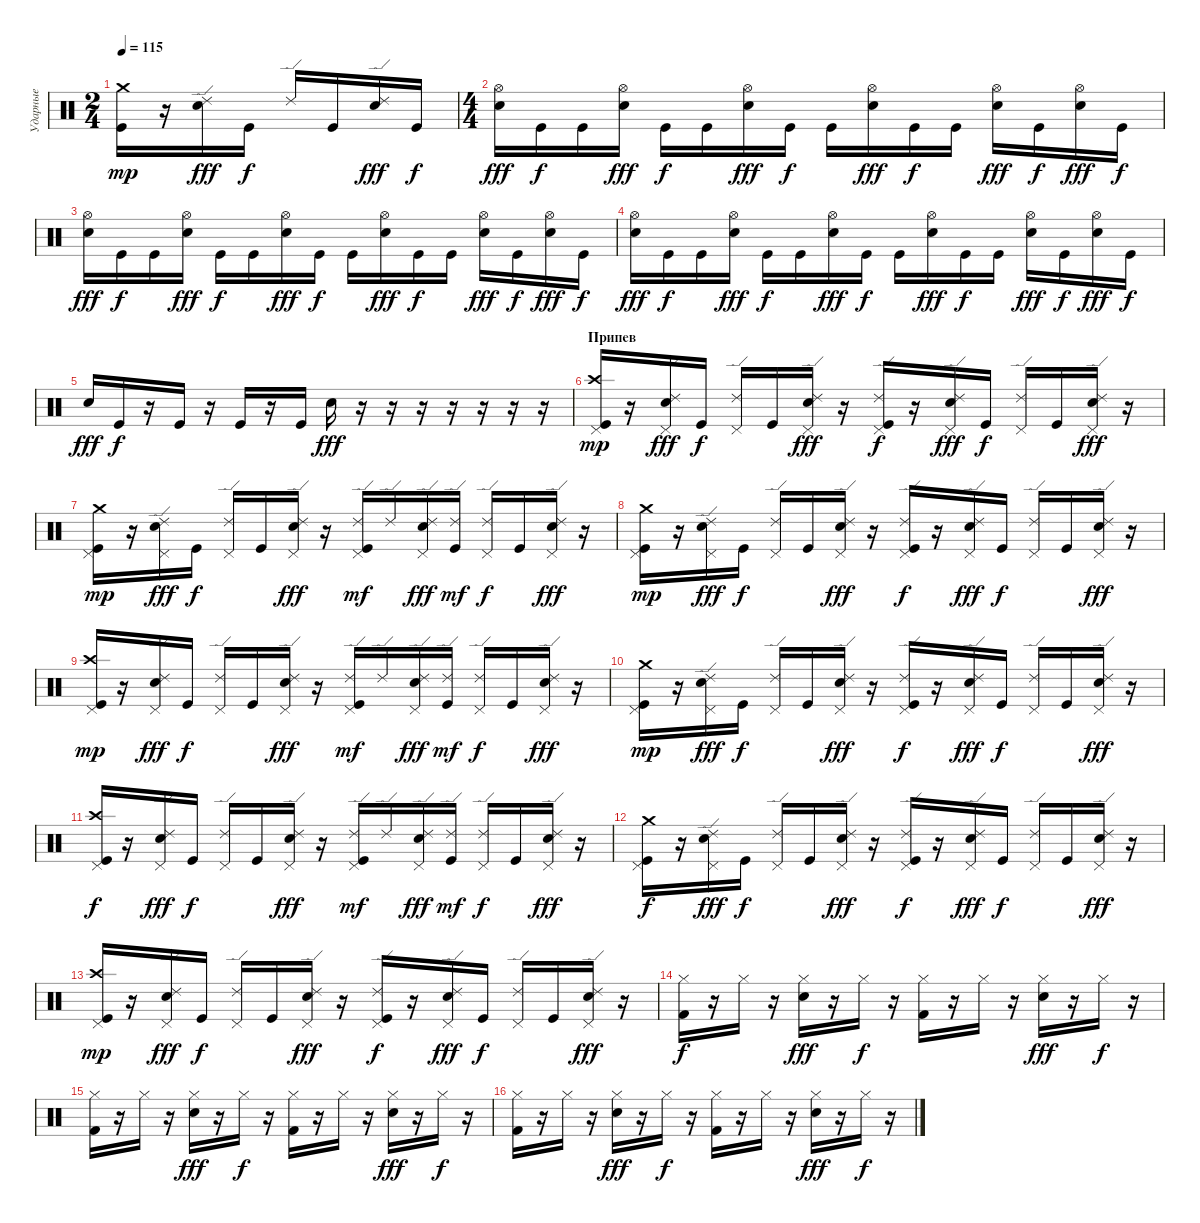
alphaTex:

\track ("Ударные" "Ударные") {instrument percussion}
\staff {score}
\articulation defaults
\ts (2 4)
\tempo 115
\clef neutral
\ks c
("Crash medium (hit)" "Kick (hit)").16{dy mp} r.16 ("Ride (edge) 2" "Electric Snare (hit)").16{dy fff} "Kick (hit)".16{dy f} "Ride (edge) 2".16 "Kick (hit)".16 ("Ride (edge) 2" "Electric Snare (hit)").16{dy fff} "Kick (hit)".16{dy f} |
\ts (4 4)
("Hi-Hat (open)" "Electric Snare (hit)").16{dy fff} "Kick (hit)".16{dy f} "Kick (hit)".16 ("Hi-Hat (open)" "Electric Snare (hit)").16{dy fff} "Kick (hit)".16{dy f} "Kick (hit)".16 ("Hi-Hat (open)" "Electric Snare (hit)").16{dy fff} "Kick (hit)".16{dy f} "Kick (hit)".16 ("Hi-Hat (open)" "Electric Snare (hit)").16{dy fff} "Kick (hit)".16{dy f} "Kick (hit)".16 ("Hi-Hat (open)" "Electric Snare (hit)").16{dy fff} "Kick (hit)".16{dy f} ("Hi-Hat (open)" "Electric Snare (hit)").16{dy fff} "Kick (hit)".16{dy f} |
("Hi-Hat (open)" "Electric Snare (hit)").16{dy fff} "Kick (hit)".16{dy f} "Kick (hit)".16 ("Hi-Hat (open)" "Electric Snare (hit)").16{dy fff} "Kick (hit)".16{dy f} "Kick (hit)".16 ("Hi-Hat (open)" "Electric Snare (hit)").16{dy fff} "Kick (hit)".16{dy f} "Kick (hit)".16 ("Hi-Hat (open)" "Electric Snare (hit)").16{dy fff} "Kick (hit)".16{dy f} "Kick (hit)".16 ("Hi-Hat (open)" "Electric Snare (hit)").16{dy fff} "Kick (hit)".16{dy f} ("Hi-Hat (open)" "Electric Snare (hit)").16{dy fff} "Kick (hit)".16{dy f} |
("Hi-Hat (open)" "Electric Snare (hit)").16{dy fff} "Kick (hit)".16{dy f} "Kick (hit)".16 ("Hi-Hat (open)" "Electric Snare (hit)").16{dy fff} "Kick (hit)".16{dy f} "Kick (hit)".16 ("Hi-Hat (open)" "Electric Snare (hit)").16{dy fff} "Kick (hit)".16{dy f} "Kick (hit)".16 ("Hi-Hat (open)" "Electric Snare (hit)").16{dy fff} "Kick (hit)".16{dy f} "Kick (hit)".16 ("Hi-Hat (open)" "Electric Snare (hit)").16{dy fff} "Kick (hit)".16{dy f} ("Hi-Hat (open)" "Electric Snare (hit)").16{dy fff} "Kick (hit)".16{dy f} |
"Electric Snare (hit)".16{dy fff} "Kick (hit)".16{dy f} r.16 "Kick (hit)".16 r.16 "Kick (hit)".16 r.16 "Kick (hit)".16 "Electric Snare (hit)".16{dy fff} r.16 r.16 r.16 r.16 r.16 r.16 r.16 |
\section ("" "Припев")
("Crash high (hit)" "Pedal Hi-Hat (hit)" "Kick (hit)").16{dy mp} r.16 ("Ride (edge) 2" "Pedal Hi-Hat (hit)" "Electric Snare (hit)").16{dy fff} "Kick (hit)".16{dy f} ("Ride (edge) 2" "Pedal Hi-Hat (hit)").16 "Kick (hit)".16 ("Ride (edge) 2" "Pedal Hi-Hat (hit)" "Electric Snare (hit)").16{dy fff} r.16 ("Ride (edge) 2" "Pedal Hi-Hat (hit)" "Kick (hit)").16{dy f} r.16 ("Ride (edge) 2" "Pedal Hi-Hat (hit)" "Electric Snare (hit)").16{dy fff} "Kick (hit)".16{dy f} ("Ride (edge) 2" "Pedal Hi-Hat (hit)").16 "Kick (hit)".16 ("Ride (edge) 2" "Pedal Hi-Hat (hit)" "Electric Snare (hit)").16{dy fff} r.16 |
("Crash medium (hit)" "Pedal Hi-Hat (hit)" "Kick (hit)").16{dy mp} r.16 ("Ride (edge) 2" "Pedal Hi-Hat (hit)" "Electric Snare (hit)").16{dy fff} "Kick (hit)".16{dy f} ("Ride (edge) 2" "Pedal Hi-Hat (hit)").16 "Kick (hit)".16 ("Ride (edge) 2" "Pedal Hi-Hat (hit)" "Electric Snare (hit)").16{dy fff} r.16 ("Ride (edge) 2" "Pedal Hi-Hat (hit)" "Kick (hit)").16{dy mf} "Ride (edge) 2".16 ("Ride (edge) 2" "Pedal Hi-Hat (hit)" "Electric Snare (hit)").16{dy fff} ("Ride (edge) 2" "Kick (hit)").16{dy mf} ("Ride (edge) 2" "Pedal Hi-Hat (hit)").16{dy f} "Kick (hit)".16 ("Ride (edge) 2" "Pedal Hi-Hat (hit)" "Electric Snare (hit)").16{dy fff} r.16 |
("Crash medium (hit)" "Pedal Hi-Hat (hit)" "Kick (hit)").16{dy mp} r.16 ("Ride (edge) 2" "Pedal Hi-Hat (hit)" "Electric Snare (hit)").16{dy fff} "Kick (hit)".16{dy f} ("Ride (edge) 2" "Pedal Hi-Hat (hit)").16 "Kick (hit)".16 ("Ride (edge) 2" "Pedal Hi-Hat (hit)" "Electric Snare (hit)").16{dy fff} r.16 ("Ride (edge) 2" "Pedal Hi-Hat (hit)" "Kick (hit)").16{dy f} r.16 ("Ride (edge) 2" "Pedal Hi-Hat (hit)" "Electric Snare (hit)").16{dy fff} "Kick (hit)".16{dy f} ("Ride (edge) 2" "Pedal Hi-Hat (hit)").16 "Kick (hit)".16 ("Ride (edge) 2" "Pedal Hi-Hat (hit)" "Electric Snare (hit)").16{dy fff} r.16 |
("Crash high (hit)" "Pedal Hi-Hat (hit)" "Kick (hit)").16{dy mp} r.16 ("Ride (edge) 2" "Pedal Hi-Hat (hit)" "Electric Snare (hit)").16{dy fff} "Kick (hit)".16{dy f} ("Ride (edge) 2" "Pedal Hi-Hat (hit)").16 "Kick (hit)".16 ("Ride (edge) 2" "Pedal Hi-Hat (hit)" "Electric Snare (hit)").16{dy fff} r.16 ("Ride (edge) 2" "Pedal Hi-Hat (hit)" "Kick (hit)").16{dy mf} "Ride (edge) 2".16 ("Ride (edge) 2" "Pedal Hi-Hat (hit)" "Electric Snare (hit)").16{dy fff} ("Ride (edge) 2" "Kick (hit)").16{dy mf} ("Ride (edge) 2" "Pedal Hi-Hat (hit)").16{dy f} "Kick (hit)".16 ("Ride (edge) 2" "Pedal Hi-Hat (hit)" "Electric Snare (hit)").16{dy fff} r.16 |
("Crash medium (hit)" "Pedal Hi-Hat (hit)" "Kick (hit)").16{dy mp} r.16 ("Ride (edge) 2" "Pedal Hi-Hat (hit)" "Electric Snare (hit)").16{dy fff} "Kick (hit)".16{dy f} ("Ride (edge) 2" "Pedal Hi-Hat (hit)").16 "Kick (hit)".16 ("Ride (edge) 2" "Pedal Hi-Hat (hit)" "Electric Snare (hit)").16{dy fff} r.16 ("Ride (edge) 2" "Pedal Hi-Hat (hit)" "Kick (hit)").16{dy f} r.16 ("Ride (edge) 2" "Pedal Hi-Hat (hit)" "Electric Snare (hit)").16{dy fff} "Kick (hit)".16{dy f} ("Ride (edge) 2" "Pedal Hi-Hat (hit)").16 "Kick (hit)".16 ("Ride (edge) 2" "Pedal Hi-Hat (hit)" "Electric Snare (hit)").16{dy fff} r.16 |
("Crash high (hit)" "Pedal Hi-Hat (hit)" "Kick (hit)").16{dy f} r.16 ("Ride (edge) 2" "Pedal Hi-Hat (hit)" "Electric Snare (hit)").16{dy fff} "Kick (hit)".16{dy f} ("Ride (edge) 2" "Pedal Hi-Hat (hit)").16 "Kick (hit)".16 ("Ride (edge) 2" "Pedal Hi-Hat (hit)" "Electric Snare (hit)").16{dy fff} r.16 ("Ride (edge) 2" "Pedal Hi-Hat (hit)" "Kick (hit)").16{dy mf} "Ride (edge) 2".16 ("Ride (edge) 2" "Pedal Hi-Hat (hit)" "Electric Snare (hit)").16{dy fff} ("Ride (edge) 2" "Kick (hit)").16{dy mf} ("Ride (edge) 2" "Pedal Hi-Hat (hit)").16{dy f} "Kick (hit)".16 ("Ride (edge) 2" "Pedal Hi-Hat (hit)" "Electric Snare (hit)").16{dy fff} r.16 |
("Crash medium (hit)" "Pedal Hi-Hat (hit)" "Kick (hit)").16{dy f} r.16 ("Ride (edge) 2" "Pedal Hi-Hat (hit)" "Electric Snare (hit)").16{dy fff} "Kick (hit)".16{dy f} ("Ride (edge) 2" "Pedal Hi-Hat (hit)").16 "Kick (hit)".16 ("Ride (edge) 2" "Pedal Hi-Hat (hit)" "Electric Snare (hit)").16{dy fff} r.16 ("Ride (edge) 2" "Pedal Hi-Hat (hit)" "Kick (hit)").16{dy f} r.16 ("Ride (edge) 2" "Pedal Hi-Hat (hit)" "Electric Snare (hit)").16{dy fff} "Kick (hit)".16{dy f} ("Ride (edge) 2" "Pedal Hi-Hat (hit)").16 "Kick (hit)".16 ("Ride (edge) 2" "Pedal Hi-Hat (hit)" "Electric Snare (hit)").16{dy fff} r.16 |
("Crash high (hit)" "Pedal Hi-Hat (hit)" "Kick (hit)").16{dy mp} r.16 ("Ride (edge) 2" "Pedal Hi-Hat (hit)" "Electric Snare (hit)").16{dy fff} "Kick (hit)".16{dy f} ("Ride (edge) 2" "Pedal Hi-Hat (hit)").16 "Kick (hit)".16 ("Ride (edge) 2" "Pedal Hi-Hat (hit)" "Electric Snare (hit)").16{dy fff} r.16 ("Ride (edge) 2" "Pedal Hi-Hat (hit)" "Kick (hit)").16{dy f} r.16 ("Ride (edge) 2" "Pedal Hi-Hat (hit)" "Electric Snare (hit)").16{dy fff} "Kick (hit)".16{dy f} ("Ride (edge) 2" "Pedal Hi-Hat (hit)").16 "Kick (hit)".16 ("Ride (edge) 2" "Pedal Hi-Hat (hit)" "Electric Snare (hit)").16{dy fff} r.16 |
\section ("" "")
("Hi-Hat (closed)" "Kick (hit) 2").16{dy f} r.16 "Hi-Hat (closed)".16 r.16 ("Hi-Hat (closed)" "Electric Snare (hit)").16{dy fff} r.16 "Hi-Hat (closed)".16{dy f} r.16 ("Hi-Hat (closed)" "Kick (hit) 2").16 r.16 "Hi-Hat (closed)".16 r.16 ("Hi-Hat (closed)" "Electric Snare (hit)").16{dy fff} r.16 "Hi-Hat (closed)".16{dy f} r.16 |
("Hi-Hat (closed)" "Kick (hit) 2").16 r.16 "Hi-Hat (closed)".16 r.16 ("Hi-Hat (closed)" "Electric Snare (hit)").16{dy fff} r.16 "Hi-Hat (closed)".16{dy f} r.16 ("Hi-Hat (closed)" "Kick (hit) 2").16 r.16 "Hi-Hat (closed)".16 r.16 ("Hi-Hat (closed)" "Electric Snare (hit)").16{dy fff} r.16 "Hi-Hat (closed)".16{dy f} r.16 |
("Hi-Hat (closed)" "Kick (hit) 2").16 r.16 "Hi-Hat (closed)".16 r.16 ("Hi-Hat (closed)" "Electric Snare (hit)").16{dy fff} r.16 "Hi-Hat (closed)".16{dy f} r.16 ("Hi-Hat (closed)" "Kick (hit) 2").16 r.16 "Hi-Hat (closed)".16 r.16 ("Hi-Hat (closed)" "Electric Snare (hit)").16{dy fff} r.16 "Hi-Hat (closed)".16{dy f} r.16
